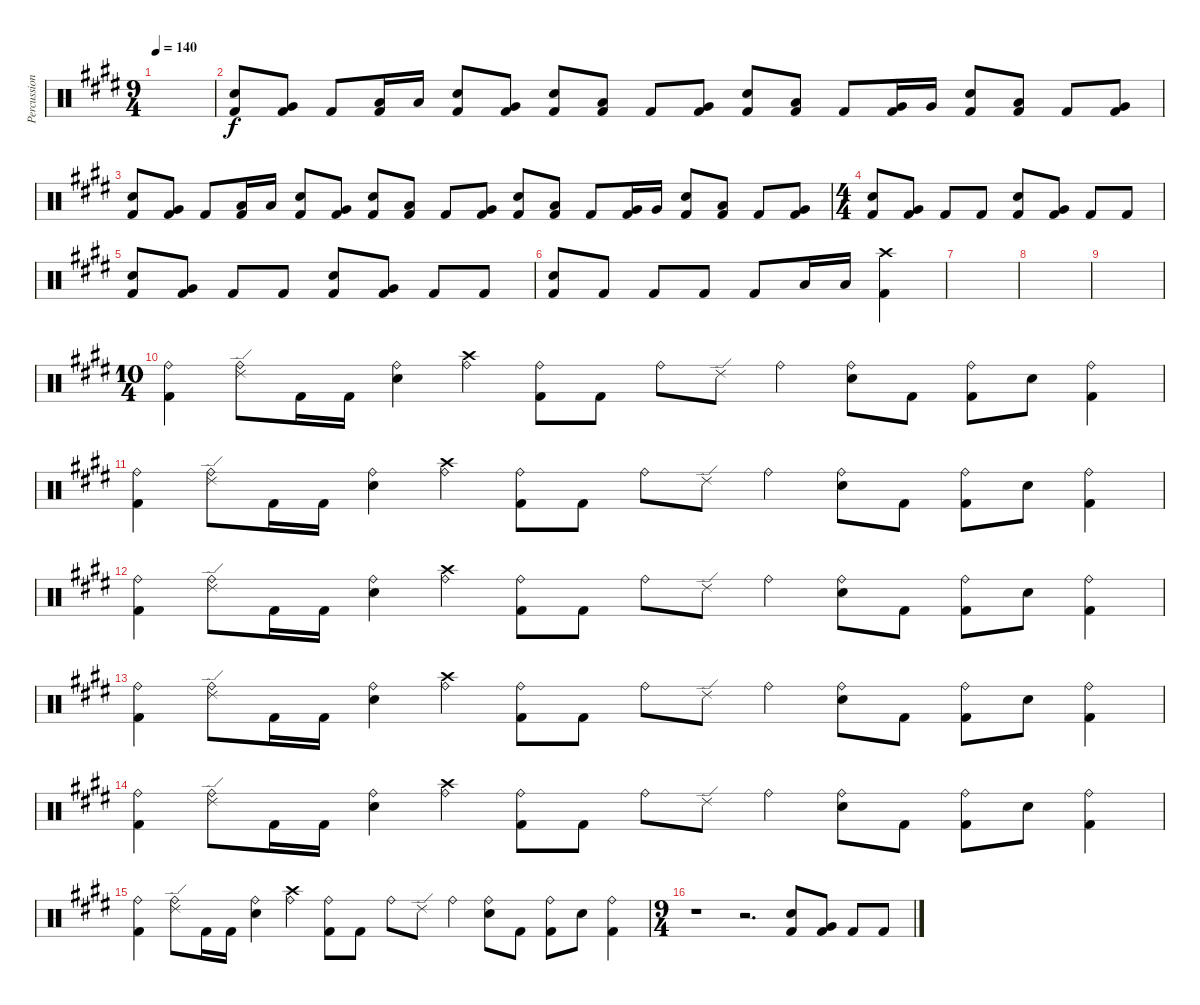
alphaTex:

\track ("Percussion" "Percussion") {instrument percussion}
\staff {score}
\articulation defaults
\ts (9 4)
\tempo 140
\clef neutral
\ks c#minor
|
("Kick (hit) 2" "Electric Snare (hit)").8 ("Kick (hit) 2" "Very Low Tom (hit)").8 "Kick (hit) 2".8 ("Kick (hit) 2" "Low Tom (hit)").16 "Low Tom (hit)".16 ("Kick (hit) 2" "Electric Snare (hit)").8 ("Kick (hit) 2" "Very Low Tom (hit)").8 ("Kick (hit) 2" "Electric Snare (hit)").8 ("Kick (hit) 2" "Low Tom (hit)").8 "Kick (hit) 2".8 ("Kick (hit) 2" "Very Low Tom (hit)").8 ("Kick (hit) 2" "Electric Snare (hit)").8 ("Kick (hit) 2" "Low Tom (hit)").8 "Kick (hit) 2".8 ("Kick (hit) 2" "Very Low Tom (hit)").16 "Very Low Tom (hit)".16 ("Kick (hit) 2" "Electric Snare (hit)").8 ("Kick (hit) 2" "Low Tom (hit)").8 "Kick (hit) 2".8 ("Kick (hit) 2" "Very Low Tom (hit)").8 |
("Kick (hit) 2" "Electric Snare (hit)").8 ("Kick (hit) 2" "Very Low Tom (hit)").8 "Kick (hit) 2".8 ("Kick (hit) 2" "Low Tom (hit)").16 "Low Tom (hit)".16 ("Kick (hit) 2" "Electric Snare (hit)").8 ("Kick (hit) 2" "Very Low Tom (hit)").8 ("Kick (hit) 2" "Electric Snare (hit)").8 ("Kick (hit) 2" "Low Tom (hit)").8 "Kick (hit) 2".8 ("Kick (hit) 2" "Very Low Tom (hit)").8 ("Kick (hit) 2" "Electric Snare (hit)").8 ("Kick (hit) 2" "Low Tom (hit)").8 "Kick (hit) 2".8 ("Kick (hit) 2" "Very Low Tom (hit)").16 "Very Low Tom (hit)".16 ("Kick (hit) 2" "Electric Snare (hit)").8 ("Kick (hit) 2" "Low Tom (hit)").8 "Kick (hit) 2".8 ("Kick (hit) 2" "Very Low Tom (hit)").8 |
\ts (4 4)
("Kick (hit) 2" "Electric Snare (hit)").8 ("Kick (hit) 2" "Very Low Tom (hit)").8 "Kick (hit) 2".8 "Kick (hit) 2".8 ("Kick (hit) 2" "Electric Snare (hit)").8 ("Kick (hit) 2" "Very Low Tom (hit)").8 "Kick (hit) 2".8 "Kick (hit) 2".8 |
("Kick (hit) 2" "Electric Snare (hit)").8 ("Kick (hit) 2" "Very Low Tom (hit)").8 "Kick (hit) 2".8 "Kick (hit) 2".8 ("Kick (hit) 2" "Electric Snare (hit)").8 ("Kick (hit) 2" "Very Low Tom (hit)").8 "Kick (hit) 2".8 "Kick (hit) 2".8 |
("Kick (hit) 2" "Electric Snare (hit)").8 "Kick (hit) 2".8 "Kick (hit) 2".8 "Kick (hit) 2".8 "Kick (hit) 2".8 "Low Tom (hit)".16 "Low Tom (hit)".16 ("Kick (hit) 2" "Crash high (hit)").4 |
|
|
|
\ts (10 4)
("Kick (hit) 2" "Ride (bell)").4 ("Ride (bell)" "Ride (edge) 2").8 "Kick (hit) 2".16 "Kick (hit) 2".16 ("Ride (bell)" "Electric Snare (hit)").4 ("Ride (bell)" "Crash high (hit)").4 ("Ride (bell)" "Kick (hit) 2").8 "Kick (hit) 2".8 "Ride (bell)".8 "Ride (edge) 2".8 "Ride (bell)".4 ("Electric Snare (hit)" "Ride (bell)").8 "Kick (hit) 2".8 ("Ride (bell)" "Kick (hit) 2").8 "Electric Snare (hit)".8 ("Ride (bell)" "Kick (hit) 2").4 |
("Kick (hit) 2" "Ride (bell)").4 ("Ride (bell)" "Ride (edge) 2").8 "Kick (hit) 2".16 "Kick (hit) 2".16 ("Ride (bell)" "Electric Snare (hit)").4 ("Ride (bell)" "Crash high (hit)").4 ("Ride (bell)" "Kick (hit) 2").8 "Kick (hit) 2".8 "Ride (bell)".8 "Ride (edge) 2".8 "Ride (bell)".4 ("Electric Snare (hit)" "Ride (bell)").8 "Kick (hit) 2".8 ("Ride (bell)" "Kick (hit) 2").8 "Electric Snare (hit)".8 ("Ride (bell)" "Kick (hit) 2").4 |
("Kick (hit) 2" "Ride (bell)").4 ("Ride (bell)" "Ride (edge) 2").8 "Kick (hit) 2".16 "Kick (hit) 2".16 ("Ride (bell)" "Electric Snare (hit)").4 ("Ride (bell)" "Crash high (hit)").4 ("Ride (bell)" "Kick (hit) 2").8 "Kick (hit) 2".8 "Ride (bell)".8 "Ride (edge) 2".8 "Ride (bell)".4 ("Electric Snare (hit)" "Ride (bell)").8 "Kick (hit) 2".8 ("Ride (bell)" "Kick (hit) 2").8 "Electric Snare (hit)".8 ("Ride (bell)" "Kick (hit) 2").4 |
("Kick (hit) 2" "Ride (bell)").4 ("Ride (bell)" "Ride (edge) 2").8 "Kick (hit) 2".16 "Kick (hit) 2".16 ("Ride (bell)" "Electric Snare (hit)").4 ("Ride (bell)" "Crash high (hit)").4 ("Ride (bell)" "Kick (hit) 2").8 "Kick (hit) 2".8 "Ride (bell)".8 "Ride (edge) 2".8 "Ride (bell)".4 ("Electric Snare (hit)" "Ride (bell)").8 "Kick (hit) 2".8 ("Ride (bell)" "Kick (hit) 2").8 "Electric Snare (hit)".8 ("Ride (bell)" "Kick (hit) 2").4 |
("Kick (hit) 2" "Ride (bell)").4 ("Ride (bell)" "Ride (edge) 2").8 "Kick (hit) 2".16 "Kick (hit) 2".16 ("Ride (bell)" "Electric Snare (hit)").4 ("Ride (bell)" "Crash high (hit)").4 ("Ride (bell)" "Kick (hit) 2").8 "Kick (hit) 2".8 "Ride (bell)".8 "Ride (edge) 2".8 "Ride (bell)".4 ("Electric Snare (hit)" "Ride (bell)").8 "Kick (hit) 2".8 ("Ride (bell)" "Kick (hit) 2").8 "Electric Snare (hit)".8 ("Ride (bell)" "Kick (hit) 2").4 |
("Kick (hit) 2" "Ride (bell)").4 ("Ride (bell)" "Ride (edge) 2").8 "Kick (hit) 2".16 "Kick (hit) 2".16 ("Ride (bell)" "Electric Snare (hit)").4 ("Ride (bell)" "Crash high (hit)").4 ("Ride (bell)" "Kick (hit) 2").8 "Kick (hit) 2".8 "Ride (bell)".8 "Ride (edge) 2".8 "Ride (bell)".4 ("Electric Snare (hit)" "Ride (bell)").8 "Kick (hit) 2".8 ("Ride (bell)" "Kick (hit) 2").8 "Electric Snare (hit)".8 ("Ride (bell)" "Kick (hit) 2").4 |
\ts (9 4)
r.1 r.2{d} ("Kick (hit) 2" "Electric Snare (hit)").8 ("Kick (hit) 2" "Very Low Tom (hit)").8 "Kick (hit) 2".8 "Kick (hit) 2".8
